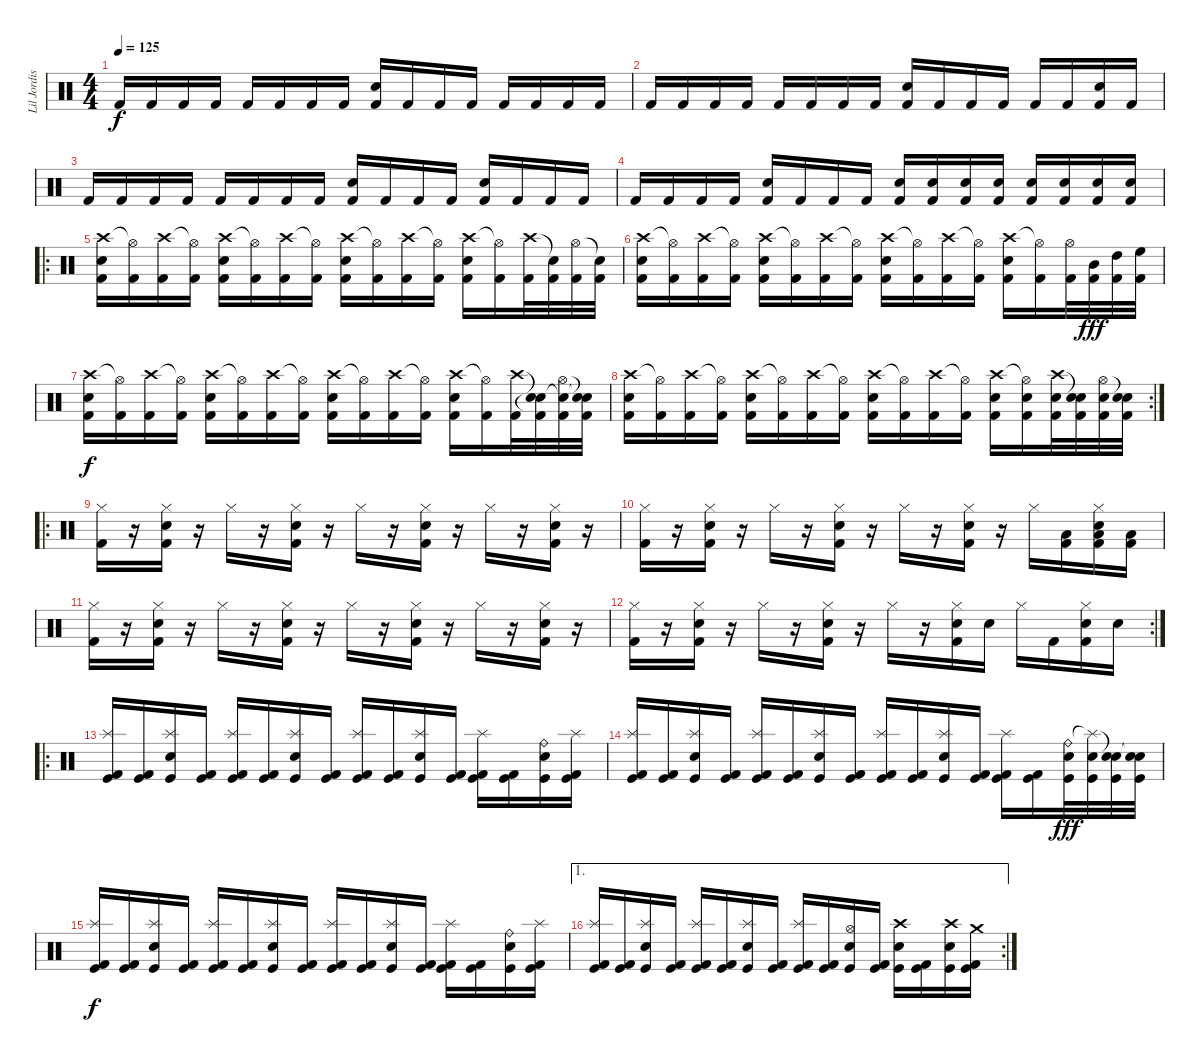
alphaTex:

\track ("Lil Jordison" "Lil Jordis") {instrument percussion}
\staff {score}
\articulation defaults
\ts (4 4)
\tempo 125
\clef neutral
\ks c "Kick (hit) 2".16{dy f} "Kick (hit) 2".16 "Kick (hit) 2".16 "Kick (hit) 2".16 "Kick (hit) 2".16 "Kick (hit) 2".16 "Kick (hit) 2".16 "Kick (hit) 2".16
("Electric Snare (hit)" "Kick (hit) 2").16 "Kick (hit) 2".16 "Kick (hit) 2".16 "Kick (hit) 2".16 "Kick (hit) 2".16 "Kick (hit) 2".16 "Kick (hit) 2".16 "Kick (hit) 2".16 |
"Kick (hit) 2".16 "Kick (hit) 2".16 "Kick (hit) 2".16 "Kick (hit) 2".16 "Kick (hit) 2".16 "Kick (hit) 2".16 "Kick (hit) 2".16 "Kick (hit) 2".16 ("Electric Snare (hit)" "Kick (hit) 2").16 "Kick (hit) 2".16 "Kick (hit) 2".16 "Kick (hit) 2".16 "Kick (hit) 2".16 "Kick (hit) 2".16 ("Electric Snare (hit)" "Kick (hit) 2").16 "Kick (hit) 2".16 |
"Kick (hit) 2".16 "Kick (hit) 2".16 "Kick (hit) 2".16 "Kick (hit) 2".16 "Kick (hit) 2".16 "Kick (hit) 2".16 "Kick (hit) 2".16 "Kick (hit) 2".16 ("Electric Snare (hit)" "Kick (hit) 2").16 "Kick (hit) 2".16 "Kick (hit) 2".16 "Kick (hit) 2".16 ("Electric Snare (hit)" "Kick (hit) 2").16 "Kick (hit) 2".16 "Kick (hit) 2".16 "Kick (hit) 2".16 |
"Kick (hit) 2".16 "Kick (hit) 2".16 "Kick (hit) 2".16 "Kick (hit) 2".16 ("Electric Snare (hit)" "Kick (hit) 2").16 "Kick (hit) 2".16 "Kick (hit) 2".16 "Kick (hit) 2".16 ("Electric Snare (hit)" "Kick (hit) 2").16 ("Electric Snare (hit)" "Kick (hit) 2").16 ("Electric Snare (hit)" "Kick (hit) 2").16 ("Electric Snare (hit)" "Kick (hit) 2").16 ("Electric Snare (hit)" "Kick (hit) 2").16 ("Electric Snare (hit)" "Kick (hit) 2").16 ("Electric Snare (hit)" "Kick (hit) 2").16 ("Electric Snare (hit)" "Kick (hit) 2").16 |
\ro
("Crash high (hit)" "Electric Snare (hit)" "Kick (hit) 2").16 ("Hi-Hat (open)"{t} "Kick (hit) 2").16 ("Crash high (hit)" "Kick (hit) 2").16 ("Hi-Hat (open)"{t} "Kick (hit) 2").16 ("Crash high (hit)" "Electric Snare (hit)" "Kick (hit) 2").16 ("Hi-Hat (open)"{t} "Kick (hit) 2").16 ("Crash high (hit)" "Kick (hit) 2").16 ("Hi-Hat (open)"{t} "Kick (hit) 2").16 ("Crash high (hit)" "Electric Snare (hit)" "Kick (hit) 2").16 ("Hi-Hat (open)"{t} "Kick (hit) 2").16 ("Crash high (hit)" "Kick (hit) 2").16 ("Hi-Hat (open)"{t} "Kick (hit) 2").16 ("Crash high (hit)" "Electric Snare (hit)" "Kick (hit) 2").16 ("Hi-Hat (open)"{t} "Kick (hit) 2").16 ("Crash high (hit)" "Kick (hit) 2").32 ("Snare (hit)"{t} "Kick (hit) 2").32 ("Hi-Hat (open)" "Kick (hit) 2").32 ("Snare (hit)"{t} "Kick (hit) 2").32 |
("Crash high (hit)" "Electric Snare (hit)" "Kick (hit) 2").16 ("Hi-Hat (open)"{t} "Kick (hit) 2").16 ("Crash high (hit)" "Kick (hit) 2").16 ("Hi-Hat (open)"{t} "Kick (hit) 2").16 ("Crash high (hit)" "Electric Snare (hit)" "Kick (hit) 2").16 ("Hi-Hat (open)"{t} "Kick (hit) 2").16 ("Crash high (hit)" "Kick (hit) 2").16 ("Hi-Hat (open)"{t} "Kick (hit) 2").16 ("Crash high (hit)" "Electric Snare (hit)" "Kick (hit) 2").16 ("Hi-Hat (open)"{t} "Kick (hit) 2").16 ("Crash high (hit)" "Kick (hit) 2").16 ("Hi-Hat (open)"{t} "Kick (hit) 2").16 ("Crash high (hit)" "Electric Snare (hit)" "Kick (hit) 2").16 ("Hi-Hat (open)"{t} "Kick (hit) 2").16 ("Hi-Hat (open)" "Kick (hit) 2").32 ("Mid Tom (hit)" "Kick (hit) 2").32{dy fff} ("High Tom (hit)" "Kick (hit) 2").32 ("High Floor Tom (hit)" "Kick (hit) 2").32 |
("Crash high (hit)" "Electric Snare (hit)" "Kick (hit) 2").16{dy f} ("Hi-Hat (open)"{t} "Kick (hit) 2").16 ("Crash high (hit)" "Kick (hit) 2").16 ("Hi-Hat (open)"{t} "Kick (hit) 2").16 ("Crash high (hit)" "Electric Snare (hit)" "Kick (hit) 2").16 ("Hi-Hat (open)"{t} "Kick (hit) 2").16 ("Crash high (hit)" "Kick (hit) 2").16 ("Hi-Hat (open)"{t} "Kick (hit) 2").16 ("Crash high (hit)" "Electric Snare (hit)" "Kick (hit) 2").16 ("Hi-Hat (open)"{t} "Kick (hit) 2").16 ("Crash high (hit)" "Kick (hit) 2").16 ("Hi-Hat (open)"{t} "Kick (hit) 2").16 ("Crash high (hit)" "Electric Snare (hit)" "Kick (hit) 2").16 ("Hi-Hat (open)"{t} "Kick (hit) 2").16 ("Crash high (hit)" "Kick (hit) 2").32 ("Snare (hit)"{t} "Snare (hit)"{t} "Kick (hit) 2").32 ("Hi-Hat (open)" "Snare (hit)"{t} "Kick (hit) 2").32 ("Snare (hit)"{t} "Snare (hit)"{t} "Kick (hit) 2").32 |
\rc 2
("Crash high (hit)" "Electric Snare (hit)" "Kick (hit) 2").16 ("Hi-Hat (open)"{t} "Kick (hit) 2").16 ("Crash high (hit)" "Kick (hit) 2").16 ("Hi-Hat (open)"{t} "Kick (hit) 2").16 ("Crash high (hit)" "Electric Snare (hit)" "Kick (hit) 2").16 ("Hi-Hat (open)"{t} "Kick (hit) 2").16 ("Crash high (hit)" "Kick (hit) 2").16 ("Hi-Hat (open)"{t} "Kick (hit) 2").16 ("Crash high (hit)" "Electric Snare (hit)" "Kick (hit) 2").16 ("Hi-Hat (open)"{t} "Kick (hit) 2").16 ("Crash high (hit)" "Kick (hit) 2").16 ("Hi-Hat (open)"{t} "Kick (hit) 2").16 ("Crash high (hit)" "Electric Snare (hit)" "Kick (hit) 2").16 ("Hi-Hat (open)"{t} "Electric Snare (hit)" "Kick (hit) 2").16 ("Crash high (hit)" "Electric Snare (hit)" "Kick (hit) 2").32 ("Snare (hit)"{t} "Electric Snare (hit)" "Kick (hit) 2").32 ("Hi-Hat (open)" "Electric Snare (hit)" "Kick (hit) 2").32 ("Snare (hit)"{t} "Electric Snare (hit)" "Kick (hit) 2").32 |
\ro
("Hi-Hat (closed)" "Kick (hit) 2").16 r.16 ("Hi-Hat (closed)" "Electric Snare (hit)" "Kick (hit) 2").16 r.16 "Hi-Hat (closed)".16 r.16 ("Hi-Hat (closed)" "Electric Snare (hit)" "Kick (hit) 2").16 r.16 "Hi-Hat (closed)".16 r.16 ("Hi-Hat (closed)" "Electric Snare (hit)" "Kick (hit) 2").16 r.16 "Hi-Hat (closed)".16 r.16 ("Hi-Hat (closed)" "Electric Snare (hit)" "Kick (hit) 2").16 r.16 |
("Hi-Hat (closed)" "Kick (hit) 2").16 r.16 ("Hi-Hat (closed)" "Electric Snare (hit)" "Kick (hit) 2").16 r.16 "Hi-Hat (closed)".16 r.16 ("Hi-Hat (closed)" "Electric Snare (hit)" "Kick (hit) 2").16 r.16 "Hi-Hat (closed)".16 r.16 ("Hi-Hat (closed)" "Electric Snare (hit)" "Kick (hit) 2").16 r.16 "Hi-Hat (closed)".16 ("Low Floor Tom (hit)" "Kick (hit) 2").16 ("Hi-Hat (closed)" "Low Floor Tom (hit)" "Electric Snare (hit)" "Kick (hit) 2").16 ("Low Floor Tom (hit)" "Kick (hit) 2").16 |
("Hi-Hat (closed)" "Kick (hit) 2").16 r.16 ("Hi-Hat (closed)" "Electric Snare (hit)" "Kick (hit) 2").16 r.16 "Hi-Hat (closed)".16 r.16 ("Hi-Hat (closed)" "Electric Snare (hit)" "Kick (hit) 2").16 r.16 "Hi-Hat (closed)".16 r.16 ("Hi-Hat (closed)" "Electric Snare (hit)" "Kick (hit) 2").16 r.16 "Hi-Hat (closed)".16 r.16 ("Hi-Hat (closed)" "Electric Snare (hit)" "Kick (hit) 2").16 r.16 |
\rc 2
("Hi-Hat (closed)" "Kick (hit) 2").16 r.16 ("Hi-Hat (closed)" "Electric Snare (hit)" "Kick (hit) 2").16 r.16 "Hi-Hat (closed)".16 r.16 ("Hi-Hat (closed)" "Electric Snare (hit)" "Kick (hit) 2").16 r.16 "Hi-Hat (closed)".16 r.16 ("Hi-Hat (closed)" "Electric Snare (hit)" "Kick (hit) 2").16 "Electric Snare (hit)".16 "Hi-Hat (closed)".16 "Kick (hit) 2".16 ("Hi-Hat (closed)" "Electric Snare (hit)" "Kick (hit) 2").16 "Electric Snare (hit)".16 |
\ro
("Splash (hit)" "Kick (hit)" "Kick (hit) 2").16 ("Kick (hit)" "Kick (hit) 2").16 ("Splash (hit)" "Kick (hit)" "Electric Snare (hit)").16 ("Kick (hit)" "Kick (hit) 2").16 ("Splash (hit)" "Kick (hit)" "Kick (hit) 2").16 ("Kick (hit)" "Kick (hit) 2").16 ("Splash (hit)" "Kick (hit)" "Electric Snare (hit)").16 ("Kick (hit)" "Kick (hit) 2").16 ("Splash (hit)" "Kick (hit)" "Kick (hit) 2").16 ("Kick (hit)" "Kick (hit) 2").16 ("Splash (hit)" "Kick (hit)" "Electric Snare (hit)").16 ("Kick (hit)" "Kick (hit) 2").16 ("Splash (hit)" "Kick (hit)" "Kick (hit) 2").16 ("Kick (hit)" "Kick (hit) 2").16 ("Ride (bell)" "Kick (hit)" "Electric Snare (hit)").16 ("Splash (hit)" "Kick (hit)" "Kick (hit) 2").16 |
("Splash (hit)" "Kick (hit)" "Kick (hit) 2").16 ("Kick (hit)" "Kick (hit) 2").16 ("Splash (hit)" "Kick (hit)" "Electric Snare (hit)").16 ("Kick (hit)" "Kick (hit) 2").16 ("Splash (hit)" "Kick (hit)" "Kick (hit) 2").16 ("Kick (hit)" "Kick (hit) 2").16 ("Splash (hit)" "Kick (hit)" "Electric Snare (hit)").16 ("Kick (hit)" "Kick (hit) 2").16 ("Splash (hit)" "Kick (hit)" "Kick (hit) 2").16 ("Kick (hit)" "Kick (hit) 2").16 ("Splash (hit)" "Kick (hit)" "Electric Snare (hit)").16 ("Kick (hit)" "Kick (hit) 2").16 ("Splash (hit)" "Kick (hit)" "Kick (hit) 2").16 ("Kick (hit)" "Kick (hit) 2").16 ("Ride (bell)" "Kick (hit)" "Electric Snare (hit)").32{dy fff} ("Splash (hit)"{t} "Kick (hit)" "Electric Snare (hit)").32 ("Snare (hit)"{t} "Kick (hit)" "Electric Snare (hit)").32 ("Snare (hit)"{t} "Kick (hit)" "Electric Snare (hit)").32 |
("Splash (hit)" "Kick (hit)" "Kick (hit) 2").16{dy f} ("Kick (hit)" "Kick (hit) 2").16 ("Splash (hit)" "Kick (hit)" "Electric Snare (hit)").16 ("Kick (hit)" "Kick (hit) 2").16 ("Splash (hit)" "Kick (hit)" "Kick (hit) 2").16 ("Kick (hit)" "Kick (hit) 2").16 ("Splash (hit)" "Kick (hit)" "Electric Snare (hit)").16 ("Kick (hit)" "Kick (hit) 2").16 ("Splash (hit)" "Kick (hit)" "Kick (hit) 2").16 ("Kick (hit)" "Kick (hit) 2").16 ("Splash (hit)" "Kick (hit)" "Electric Snare (hit)").16 ("Kick (hit)" "Kick (hit) 2").16 ("Splash (hit)" "Kick (hit)" "Kick (hit) 2").16 ("Kick (hit)" "Kick (hit) 2").16 ("Ride (bell)" "Kick (hit)" "Electric Snare (hit)").16 ("Splash (hit)" "Kick (hit)" "Kick (hit) 2").16 |
\ae 1
\rc 2
("Splash (hit)" "Kick (hit)" "Kick (hit) 2").16 ("Kick (hit)" "Kick (hit) 2").16 ("Splash (hit)" "Kick (hit)" "Electric Snare (hit)").16 ("Kick (hit)" "Kick (hit) 2").16 ("Splash (hit)" "Kick (hit)" "Kick (hit) 2").16 ("Kick (hit)" "Kick (hit) 2").16 ("Splash (hit)" "Kick (hit)" "Electric Snare (hit)").16 ("Kick (hit)" "Kick (hit) 2").16 ("Splash (hit)" "Kick (hit)" "Kick (hit) 2").16 ("Kick (hit)" "Kick (hit) 2").16 ("Hi-Hat (open)" "Kick (hit)" "Electric Snare (hit)").16 ("Kick (hit)" "Kick (hit) 2").16 ("Crash high (hit)" "Kick (hit)" "Electric Snare (hit)").16 ("Kick (hit)" "Kick (hit) 2").16 ("Crash high (hit)" "Kick (hit)" "Electric Snare (hit)").16 ("Crash medium (hit)" "Kick (hit)" "Kick (hit) 2").16
